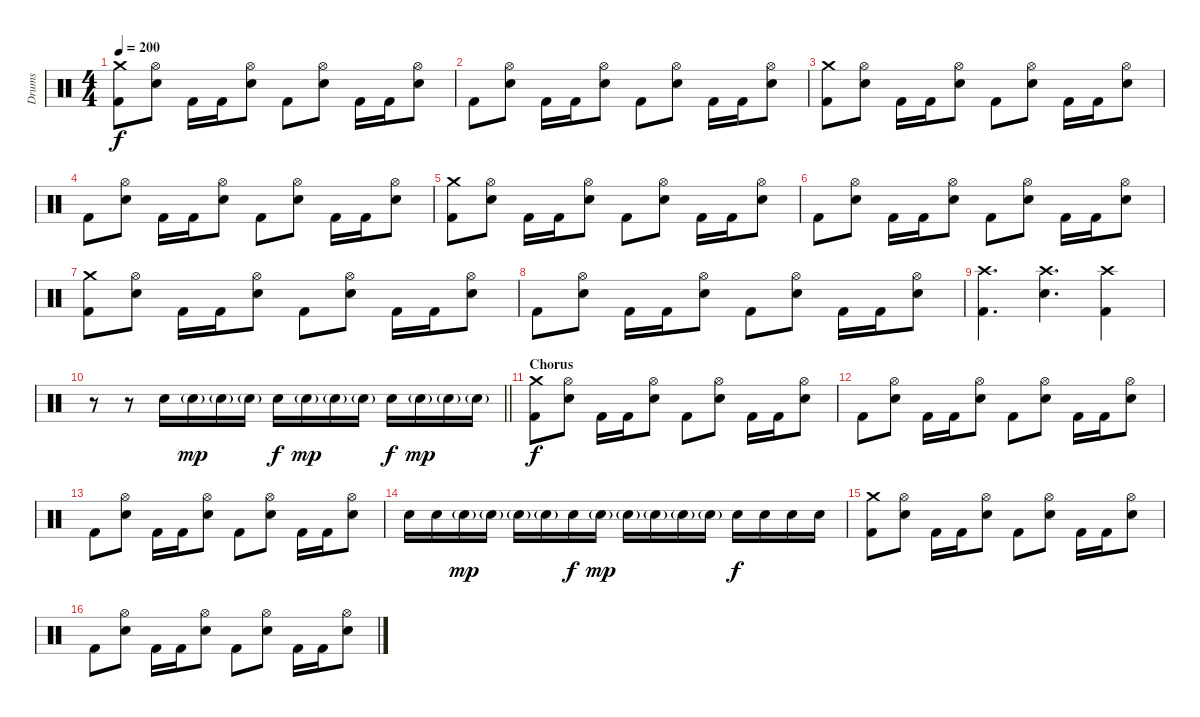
\track ("Drums" "Drums") {instrument percussion}
\staff {score}
\articulation defaults
\ts (4 4)
\tempo 200
\clef neutral
\ks c
("Crash medium (hit)" "Kick (hit) 2").8{dy f} ("Hi-Hat (open)" "Electric Snare (hit)").8 "Kick (hit) 2".16 "Kick (hit) 2".16 ("Hi-Hat (open)" "Electric Snare (hit)").8 "Kick (hit) 2".8 ("Hi-Hat (open)" "Electric Snare (hit)").8 "Kick (hit) 2".16 "Kick (hit) 2".16 ("Hi-Hat (open)" "Electric Snare (hit)").8 |
"Kick (hit) 2".8 ("Hi-Hat (open)" "Electric Snare (hit)").8 "Kick (hit) 2".16 "Kick (hit) 2".16 ("Hi-Hat (open)" "Electric Snare (hit)").8 "Kick (hit) 2".8 ("Hi-Hat (open)" "Electric Snare (hit)").8 "Kick (hit) 2".16 "Kick (hit) 2".16 ("Hi-Hat (open)" "Electric Snare (hit)").8 |
("Crash medium (hit)" "Kick (hit) 2").8 ("Hi-Hat (open)" "Electric Snare (hit)").8 "Kick (hit) 2".16 "Kick (hit) 2".16 ("Hi-Hat (open)" "Electric Snare (hit)").8 "Kick (hit) 2".8 ("Hi-Hat (open)" "Electric Snare (hit)").8 "Kick (hit) 2".16 "Kick (hit) 2".16 ("Hi-Hat (open)" "Electric Snare (hit)").8 |
"Kick (hit) 2".8 ("Hi-Hat (open)" "Electric Snare (hit)").8 "Kick (hit) 2".16 "Kick (hit) 2".16 ("Hi-Hat (open)" "Electric Snare (hit)").8 "Kick (hit) 2".8 ("Hi-Hat (open)" "Electric Snare (hit)").8 "Kick (hit) 2".16 "Kick (hit) 2".16 ("Hi-Hat (open)" "Electric Snare (hit)").8 |
("Crash medium (hit)" "Kick (hit) 2").8 ("Hi-Hat (open)" "Electric Snare (hit)").8 "Kick (hit) 2".16 "Kick (hit) 2".16 ("Hi-Hat (open)" "Electric Snare (hit)").8 "Kick (hit) 2".8 ("Hi-Hat (open)" "Electric Snare (hit)").8 "Kick (hit) 2".16 "Kick (hit) 2".16 ("Hi-Hat (open)" "Electric Snare (hit)").8 |
"Kick (hit) 2".8 ("Hi-Hat (open)" "Electric Snare (hit)").8 "Kick (hit) 2".16 "Kick (hit) 2".16 ("Hi-Hat (open)" "Electric Snare (hit)").8 "Kick (hit) 2".8 ("Hi-Hat (open)" "Electric Snare (hit)").8 "Kick (hit) 2".16 "Kick (hit) 2".16 ("Hi-Hat (open)" "Electric Snare (hit)").8 |
("Crash medium (hit)" "Kick (hit) 2").8 ("Hi-Hat (open)" "Electric Snare (hit)").8 "Kick (hit) 2".16 "Kick (hit) 2".16 ("Hi-Hat (open)" "Electric Snare (hit)").8 "Kick (hit) 2".8 ("Hi-Hat (open)" "Electric Snare (hit)").8 "Kick (hit) 2".16 "Kick (hit) 2".16 ("Hi-Hat (open)" "Electric Snare (hit)").8 |
"Kick (hit) 2".8 ("Hi-Hat (open)" "Electric Snare (hit)").8 "Kick (hit) 2".16 "Kick (hit) 2".16 ("Hi-Hat (open)" "Electric Snare (hit)").8 "Kick (hit) 2".8 ("Hi-Hat (open)" "Electric Snare (hit)").8 "Kick (hit) 2".16 "Kick (hit) 2".16 ("Hi-Hat (open)" "Electric Snare (hit)").8 |
("Crash high (hit)" "Kick (hit) 2").4{d} ("Crash high (hit)" "Electric Snare (hit)").4{d} ("Crash high (hit)" "Kick (hit) 2").4 |
\barLineRight lightlight
r.8 r.8 "Electric Snare (hit)".16 "Electric Snare (hit)"{g}.16{dy mp} "Electric Snare (hit)"{g}.16 "Electric Snare (hit)"{g}.16 "Electric Snare (hit)".16{dy f} "Electric Snare (hit)"{g}.16{dy mp} "Electric Snare (hit)"{g}.16 "Electric Snare (hit)"{g}.16 "Electric Snare (hit)".16{dy f} "Electric Snare (hit)"{g}.16{dy mp} "Electric Snare (hit)"{g}.16 "Electric Snare (hit)"{g}.16 |
\section ("" "Chorus")
("Crash medium (hit)" "Kick (hit) 2").8{dy f} ("Hi-Hat (open)" "Electric Snare (hit)").8 "Kick (hit) 2".16 "Kick (hit) 2".16 ("Hi-Hat (open)" "Electric Snare (hit)").8 "Kick (hit) 2".8 ("Hi-Hat (open)" "Electric Snare (hit)").8 "Kick (hit) 2".16 "Kick (hit) 2".16 ("Hi-Hat (open)" "Electric Snare (hit)").8 |
"Kick (hit) 2".8 ("Hi-Hat (open)" "Electric Snare (hit)").8 "Kick (hit) 2".16 "Kick (hit) 2".16 ("Hi-Hat (open)" "Electric Snare (hit)").8 "Kick (hit) 2".8 ("Hi-Hat (open)" "Electric Snare (hit)").8 "Kick (hit) 2".16 "Kick (hit) 2".16 ("Hi-Hat (open)" "Electric Snare (hit)").8 |
"Kick (hit) 2".8 ("Hi-Hat (open)" "Electric Snare (hit)").8 "Kick (hit) 2".16 "Kick (hit) 2".16 ("Hi-Hat (open)" "Electric Snare (hit)").8 "Kick (hit) 2".8 ("Hi-Hat (open)" "Electric Snare (hit)").8 "Kick (hit) 2".16 "Kick (hit) 2".16 ("Hi-Hat (open)" "Electric Snare (hit)").8 |
"Electric Snare (hit)".16 "Electric Snare (hit)".16 "Electric Snare (hit)"{g}.16{dy mp} "Electric Snare (hit)"{g}.16 "Electric Snare (hit)"{g}.16 "Electric Snare (hit)"{g}.16 "Electric Snare (hit)".16{dy f} "Electric Snare (hit)"{g}.16{dy mp} "Electric Snare (hit)"{g}.16 "Electric Snare (hit)"{g}.16 "Electric Snare (hit)"{g}.16 "Electric Snare (hit)"{g}.16 "Electric Snare (hit)".16{dy f} "Electric Snare (hit)".16 "Electric Snare (hit)".16 "Electric Snare (hit)".16 |
("Crash medium (hit)" "Kick (hit) 2").8 ("Hi-Hat (open)" "Electric Snare (hit)").8 "Kick (hit) 2".16 "Kick (hit) 2".16 ("Hi-Hat (open)" "Electric Snare (hit)").8 "Kick (hit) 2".8 ("Hi-Hat (open)" "Electric Snare (hit)").8 "Kick (hit) 2".16 "Kick (hit) 2".16 ("Hi-Hat (open)" "Electric Snare (hit)").8 |
"Kick (hit) 2".8 ("Hi-Hat (open)" "Electric Snare (hit)").8 "Kick (hit) 2".16 "Kick (hit) 2".16 ("Hi-Hat (open)" "Electric Snare (hit)").8 "Kick (hit) 2".8 ("Hi-Hat (open)" "Electric Snare (hit)").8 "Kick (hit) 2".16 "Kick (hit) 2".16 ("Hi-Hat (open)" "Electric Snare (hit)").8
